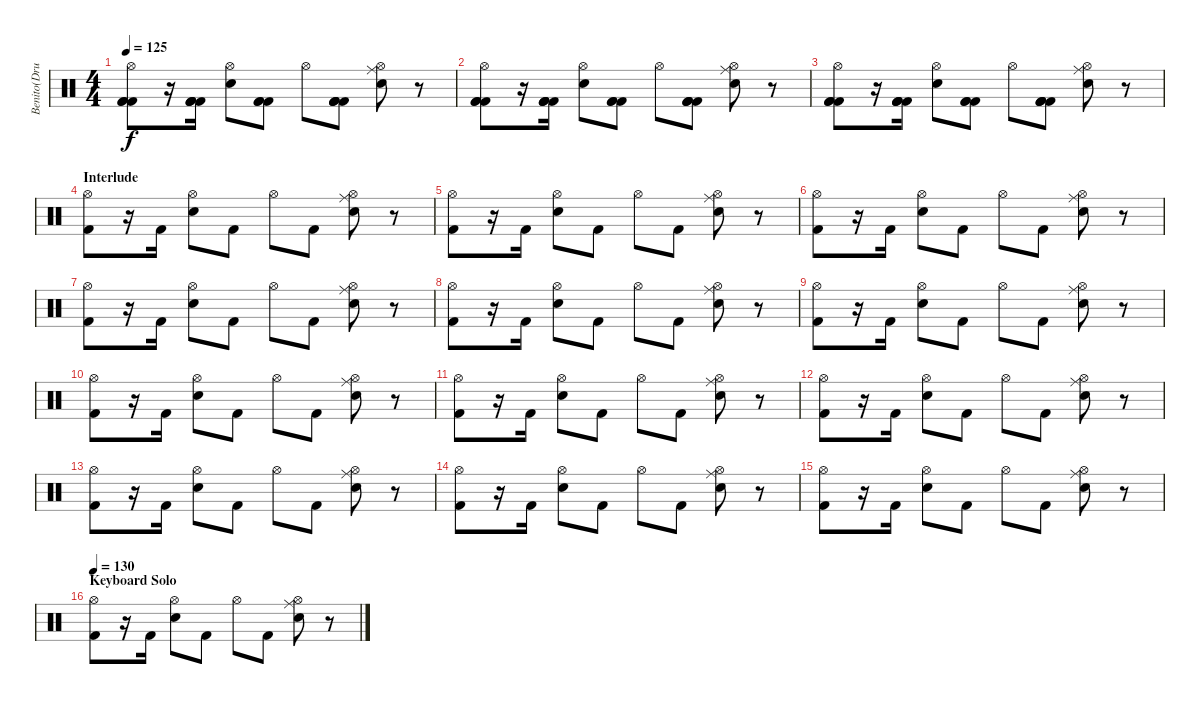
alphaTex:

\track ("Benito(Drums)" "Benito(Dru") {instrument percussion}
\staff {score}
\articulation defaults
\ts (4 4)
\tempo 125
\clef neutral
\ks c
("Kick (hit) 2" "Hi-Hat (open)" "Kick (hit) 2" "Kick (hit) 2").8{dy f} r.16 ("Kick (hit) 2" "Kick (hit) 2" "Kick (hit) 2" "Kick (hit) 2").16 ("Electric Snare (hit)" "Hi-Hat (open)").8 ("Kick (hit) 2" "Kick (hit) 2" "Kick (hit) 2").8 "Hi-Hat (open)".8 ("Kick (hit) 2" "Kick (hit) 2" "Kick (hit) 2" "Kick (hit) 2").8 ("Electric Snare (hit)" "Ride (middle)" "Hi-Hat (open)").8 r.8 |
("Kick (hit) 2" "Hi-Hat (open)" "Kick (hit) 2" "Kick (hit) 2").8 r.16 ("Kick (hit) 2" "Kick (hit) 2" "Kick (hit) 2" "Kick (hit) 2").16 ("Electric Snare (hit)" "Hi-Hat (open)").8 ("Kick (hit) 2" "Kick (hit) 2" "Kick (hit) 2").8 "Hi-Hat (open)".8 ("Kick (hit) 2" "Kick (hit) 2" "Kick (hit) 2" "Kick (hit) 2").8 ("Electric Snare (hit)" "Ride (middle)" "Hi-Hat (open)").8 r.8 |
("Kick (hit) 2" "Hi-Hat (open)" "Kick (hit) 2" "Kick (hit) 2").8 r.16 ("Kick (hit) 2" "Kick (hit) 2" "Kick (hit) 2" "Kick (hit) 2").16 ("Electric Snare (hit)" "Hi-Hat (open)").8 ("Kick (hit) 2" "Kick (hit) 2" "Kick (hit) 2").8 "Hi-Hat (open)".8 ("Kick (hit) 2" "Kick (hit) 2" "Kick (hit) 2" "Kick (hit) 2").8 ("Electric Snare (hit)" "Ride (middle)" "Hi-Hat (open)").8 r.8 |
\section ("" "Interlude")
("Kick (hit) 2" "Hi-Hat (open)").8 r.16 "Kick (hit) 2".16 ("Electric Snare (hit)" "Hi-Hat (open)").8 "Kick (hit) 2".8 "Hi-Hat (open)".8 "Kick (hit) 2".8 ("Electric Snare (hit)" "Ride (middle)" "Hi-Hat (open)").8 r.8 |
("Kick (hit) 2" "Hi-Hat (open)").8 r.16 "Kick (hit) 2".16 ("Electric Snare (hit)" "Hi-Hat (open)").8 "Kick (hit) 2".8 "Hi-Hat (open)".8 "Kick (hit) 2".8 ("Electric Snare (hit)" "Ride (middle)" "Hi-Hat (open)").8 r.8 |
("Kick (hit) 2" "Hi-Hat (open)").8 r.16 "Kick (hit) 2".16 ("Electric Snare (hit)" "Hi-Hat (open)").8 "Kick (hit) 2".8 "Hi-Hat (open)".8 "Kick (hit) 2".8 ("Electric Snare (hit)" "Ride (middle)" "Hi-Hat (open)").8 r.8 |
("Kick (hit) 2" "Hi-Hat (open)").8 r.16 "Kick (hit) 2".16 ("Electric Snare (hit)" "Hi-Hat (open)").8 "Kick (hit) 2".8 "Hi-Hat (open)".8 "Kick (hit) 2".8 ("Electric Snare (hit)" "Ride (middle)" "Hi-Hat (open)").8 r.8 |
("Kick (hit) 2" "Hi-Hat (open)").8 r.16 "Kick (hit) 2".16 ("Electric Snare (hit)" "Hi-Hat (open)").8 "Kick (hit) 2".8 "Hi-Hat (open)".8 "Kick (hit) 2".8 ("Electric Snare (hit)" "Ride (middle)" "Hi-Hat (open)").8 r.8 |
("Kick (hit) 2" "Hi-Hat (open)").8 r.16 "Kick (hit) 2".16 ("Electric Snare (hit)" "Hi-Hat (open)").8 "Kick (hit) 2".8 "Hi-Hat (open)".8 "Kick (hit) 2".8 ("Electric Snare (hit)" "Ride (middle)" "Hi-Hat (open)").8 r.8 |
("Kick (hit) 2" "Hi-Hat (open)").8 r.16 "Kick (hit) 2".16 ("Electric Snare (hit)" "Hi-Hat (open)").8 "Kick (hit) 2".8 "Hi-Hat (open)".8 "Kick (hit) 2".8 ("Electric Snare (hit)" "Ride (middle)" "Hi-Hat (open)").8 r.8 |
("Kick (hit) 2" "Hi-Hat (open)").8 r.16 "Kick (hit) 2".16 ("Electric Snare (hit)" "Hi-Hat (open)").8 "Kick (hit) 2".8 "Hi-Hat (open)".8 "Kick (hit) 2".8 ("Electric Snare (hit)" "Ride (middle)" "Hi-Hat (open)").8 r.8 |
("Kick (hit) 2" "Hi-Hat (open)").8 r.16 "Kick (hit) 2".16 ("Electric Snare (hit)" "Hi-Hat (open)").8 "Kick (hit) 2".8 "Hi-Hat (open)".8 "Kick (hit) 2".8 ("Electric Snare (hit)" "Ride (middle)" "Hi-Hat (open)").8 r.8 |
("Kick (hit) 2" "Hi-Hat (open)").8 r.16 "Kick (hit) 2".16 ("Electric Snare (hit)" "Hi-Hat (open)").8 "Kick (hit) 2".8 "Hi-Hat (open)".8 "Kick (hit) 2".8 ("Electric Snare (hit)" "Ride (middle)" "Hi-Hat (open)").8 r.8 |
("Kick (hit) 2" "Hi-Hat (open)").8 r.16 "Kick (hit) 2".16 ("Electric Snare (hit)" "Hi-Hat (open)").8 "Kick (hit) 2".8 "Hi-Hat (open)".8 "Kick (hit) 2".8 ("Electric Snare (hit)" "Ride (middle)" "Hi-Hat (open)").8 r.8 |
("Kick (hit) 2" "Hi-Hat (open)").8 r.16 "Kick (hit) 2".16 ("Electric Snare (hit)" "Hi-Hat (open)").8 "Kick (hit) 2".8 "Hi-Hat (open)".8 "Kick (hit) 2".8 ("Electric Snare (hit)" "Ride (middle)" "Hi-Hat (open)").8 r.8 |
\section ("" "Keyboard Solo")
\tempo 130
("Kick (hit) 2" "Hi-Hat (open)").8 r.16 "Kick (hit) 2".16 ("Electric Snare (hit)" "Hi-Hat (open)").8 "Kick (hit) 2".8 "Hi-Hat (open)".8 "Kick (hit) 2".8 ("Electric Snare (hit)" "Ride (middle)" "Hi-Hat (open)").8 r.8
